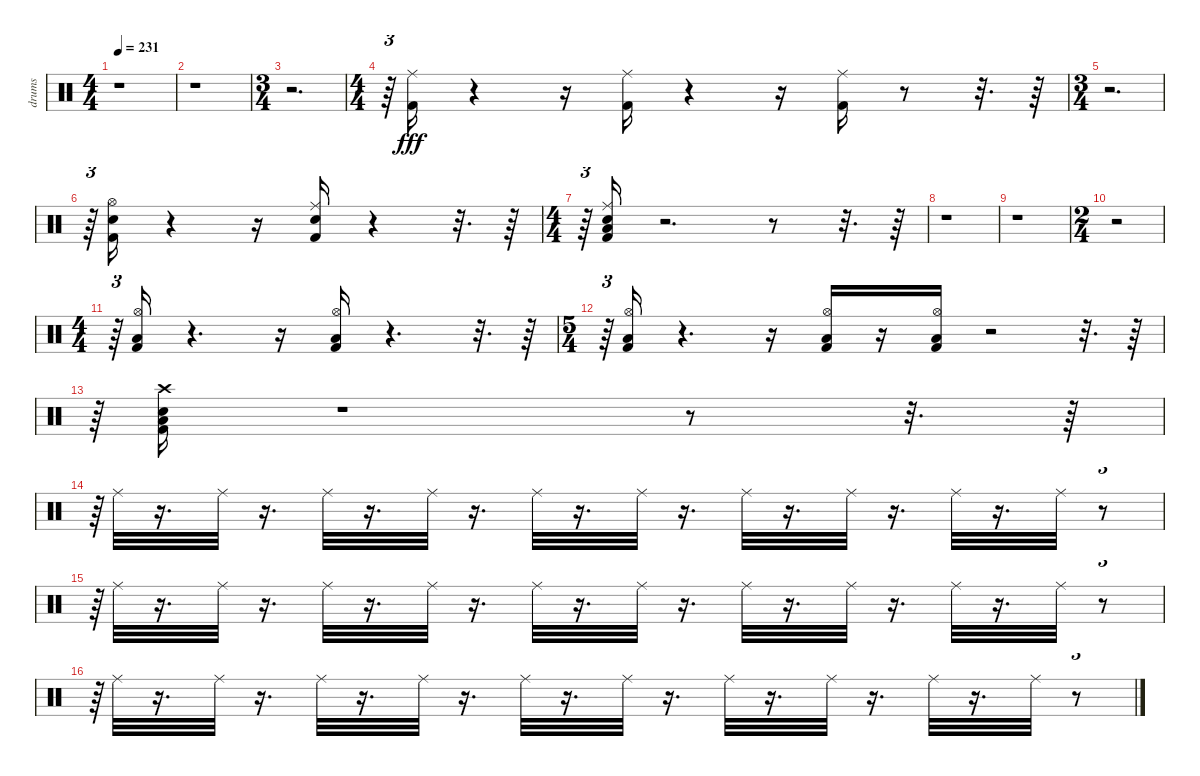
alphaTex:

\track ("drums               " "drums     ") {instrument percussion}
\staff {score}
\articulation defaults
\ts (4 4)
\tempo 231
\clef neutral
\ks c
r.1{dy fff} |
r.1 |
\ts (3 4)
r.2{d} |
\ts (4 4)
r.64{tu (3 2)} ("Kick (hit) 2" "Ride (middle)").16 r.4 r.16 ("Kick (hit) 2" "Ride (middle)").16 r.4 r.16 ("Kick (hit) 2" "Ride (middle)").16 r.8 r.32{d} r.64 |
\ts (3 4)
r.2{d} |
r.64{tu (3 2)} ("Snare (hit) 2" "Kick (hit) 2" "Hi-Hat (open)").16 r.4 r.16 ("Snare (hit) 2" "Kick (hit) 2" "Ride (middle)").16 r.4 r.32{d} r.64 |
\ts (4 4)
r.64{tu (3 2)} ("Snare (hit) 2" "Kick (hit) 2" "Low Floor Tom (hit)" "Ride (middle)").16 r.2{d} r.8 r.32{d} r.64 |
r.1 |
r.1 |
\ts (2 4)
r.2 |
\ts (4 4)
r.64{tu (3 2)} ("Kick (hit) 2" "Low Floor Tom (hit)" "Hi-Hat (open)").16 r.4{d} r.16 ("Kick (hit) 2" "Low Floor Tom (hit)" "Hi-Hat (open)").16 r.4{d} r.32{d} r.64 |
\ts (5 4)
r.64{tu (3 2)} ("Kick (hit) 2" "Low Floor Tom (hit)" "Hi-Hat (open)").16 r.4{d} r.16 ("Kick (hit) 2" "Low Floor Tom (hit)" "Hi-Hat (open)").16 r.16 ("Kick (hit) 2" "Low Floor Tom (hit)" "Hi-Hat (open)").16 r.2 r.32{d} r.64 |
r.64{tu (3 2)} ("Kick (hit) 2" "Low Floor Tom (hit)" "Snare (hit) 2" "Crash high (hit)").16 r.1 r.8 r.32{d} r.64 |
r.64{tu (3 2)} "Ride (middle)".32 r.16{d} "Ride (middle)".32 r.16{d} "Ride (middle)".32 r.16{d} "Ride (middle)".32 r.16{d} "Ride (middle)".32 r.16{d} "Ride (middle)".32 r.16{d} "Ride (middle)".32 r.16{d} "Ride (middle)".32 r.16{d} "Ride (middle)".32 r.16{d} "Ride (middle)".32 r.8{tu (3 2)} |
r.64{tu (3 2)} "Ride (middle)".32 r.16{d} "Ride (middle)".32 r.16{d} "Ride (middle)".32 r.16{d} "Ride (middle)".32 r.16{d} "Ride (middle)".32 r.16{d} "Ride (middle)".32 r.16{d} "Ride (middle)".32 r.16{d} "Ride (middle)".32 r.16{d} "Ride (middle)".32 r.16{d} "Ride (middle)".32 r.8{tu (3 2)} |
r.64{tu (3 2)} "Ride (middle)".32 r.16{d} "Ride (middle)".32 r.16{d} "Ride (middle)".32 r.16{d} "Ride (middle)".32 r.16{d} "Ride (middle)".32 r.16{d} "Ride (middle)".32 r.16{d} "Ride (middle)".32 r.16{d} "Ride (middle)".32 r.16{d} "Ride (middle)".32 r.16{d} "Ride (middle)".32 r.8{tu (3 2)}
